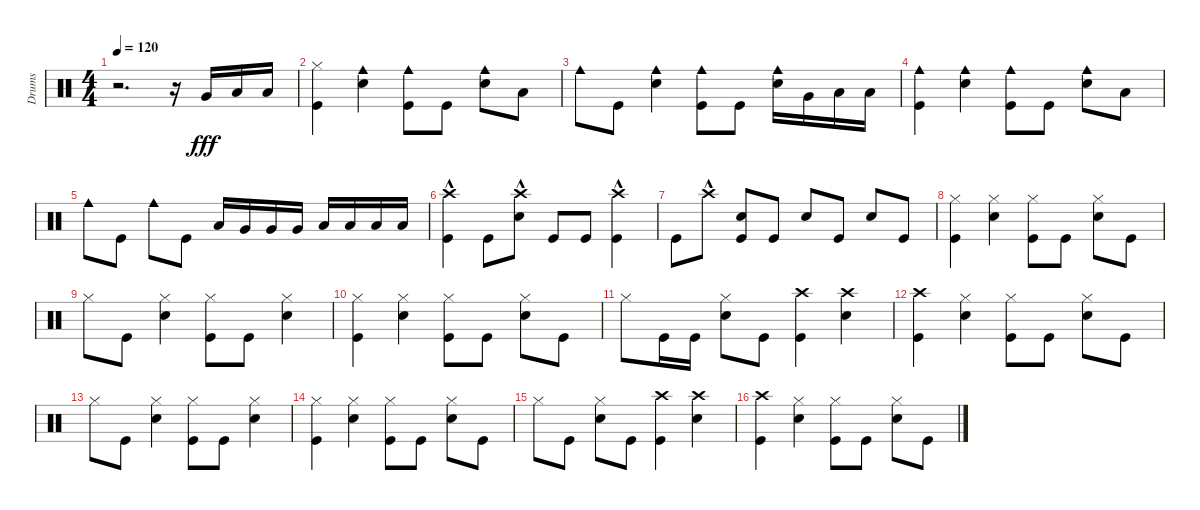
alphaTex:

\track ("Drums" "Drums") {instrument percussion}
\staff {score}
\articulation defaults
\ts (4 4)
\tempo 120
\clef neutral
\ks c
r.2{d dy fff} r.16 "Very Low Tom (hit)".16 "Low Tom (hit)".16 "Low Floor Tom (hit)".16 |
("Kick (hit)" "Hi-Hat (closed)").4 ("Snare (hit) 2" "Cowbell medium (hit)").4 ("Cowbell medium (hit)" "Kick (hit)").8 "Kick (hit)".8 ("Cowbell medium (hit)" "Snare (hit) 2").8 "Low Floor Tom (hit)".8 |
"Cowbell medium (hit)".8 "Kick (hit)".8 ("Cowbell medium (hit)" "Snare (hit) 2").4 ("Cowbell medium (hit)" "Kick (hit)").8 "Kick (hit)".8 ("Cowbell medium (hit)" "Snare (hit) 2").16 "Very Low Tom (hit)".16 "Low Tom (hit)".16 "Low Floor Tom (hit)".16 |
("Kick (hit)" "Cowbell medium (hit)").4 ("Snare (hit) 2" "Cowbell medium (hit)").4 ("Kick (hit)" "Cowbell medium (hit)").8 "Kick (hit)".8 ("Snare (hit) 2" "Cowbell medium (hit)").8 "Low Floor Tom (hit)".8 |
"Cowbell medium (hit)".8 "Kick (hit)".8 "Cowbell medium (hit)".8 "Kick (hit)".8 "Low Tom (hit)".16 "Very Low Tom (hit)".16 "Very Low Tom (hit)".16 "Very Low Tom (hit)".16 "Low Floor Tom (hit)".16 "Low Floor Tom (hit)".16 "Low Floor Tom (hit)".16 "Low Floor Tom (hit)".16 |
("Kick (hit)" "Crash high (hit)"{hac}).4 "Kick (hit)".8 ("Snare (hit) 2" "Crash high (hit)"{hac}).8 "Kick (hit)".8 "Kick (hit)".8 ("Kick (hit)" "Crash high (hit)"{hac}).4 |
"Kick (hit)".8 "Crash high (hit)"{hac}.8 ("Kick (hit)" "Snare (hit) 2").8 "Kick (hit)".8 "Snare (hit) 2".8 "Kick (hit)".8 "Snare (hit) 2".8 "Kick (hit)".8 |
("Kick (hit)" "Hi-Hat (closed)").4 ("Snare (hit) 2" "Hi-Hat (closed)").4 ("Kick (hit)" "Hi-Hat (closed)").8 "Kick (hit)".8 ("Snare (hit) 2" "Hi-Hat (closed)").8 "Kick (hit)".8 |
"Hi-Hat (closed)".8 "Kick (hit)".8 ("Hi-Hat (closed)" "Snare (hit) 2").4 ("Hi-Hat (closed)" "Kick (hit)").8 "Kick (hit)".8 ("Hi-Hat (closed)" "Snare (hit) 2").4 |
("Kick (hit)" "Hi-Hat (closed)").4 ("Snare (hit) 2" "Hi-Hat (closed)").4 ("Kick (hit)" "Hi-Hat (closed)").8 "Kick (hit)".8 ("Snare (hit) 2" "Hi-Hat (closed)").8 "Kick (hit)".8 |
"Hi-Hat (closed)".8 "Kick (hit)".16 "Kick (hit)".16 ("Hi-Hat (closed)" "Snare (hit) 2").8 "Kick (hit)".8 ("Crash high (hit)" "Kick (hit)").4 ("Crash high (hit)" "Snare (hit) 2").4 |
("Kick (hit)" "Crash high (hit)").4 ("Hi-Hat (closed)" "Snare (hit) 2").4 ("Kick (hit)" "Hi-Hat (closed)").8 "Kick (hit)".8 ("Hi-Hat (closed)" "Snare (hit) 2").8 "Kick (hit)".8 |
"Hi-Hat (closed)".8 "Kick (hit)".8 ("Hi-Hat (closed)" "Snare (hit) 2").4 ("Kick (hit)" "Hi-Hat (closed)").8 "Kick (hit)".8 ("Hi-Hat (closed)" "Snare (hit) 2").4 |
("Kick (hit)" "Hi-Hat (closed)").4 ("Snare (hit) 2" "Hi-Hat (closed)").4 ("Kick (hit)" "Hi-Hat (closed)").8 "Kick (hit)".8 ("Snare (hit) 2" "Hi-Hat (closed)").8 "Kick (hit)".8 |
"Hi-Hat (closed)".8 "Kick (hit)".8 ("Hi-Hat (closed)" "Snare (hit) 2").8 "Kick (hit)".8 ("Kick (hit)" "Crash high (hit)").4 ("Crash high (hit)" "Snare (hit) 2").4 |
("Crash high (hit)" "Kick (hit)").4 ("Hi-Hat (closed)" "Snare (hit) 2").4 ("Kick (hit)" "Hi-Hat (closed)").8 "Kick (hit)".8 ("Hi-Hat (closed)" "Snare (hit) 2").8 "Kick (hit)".8
